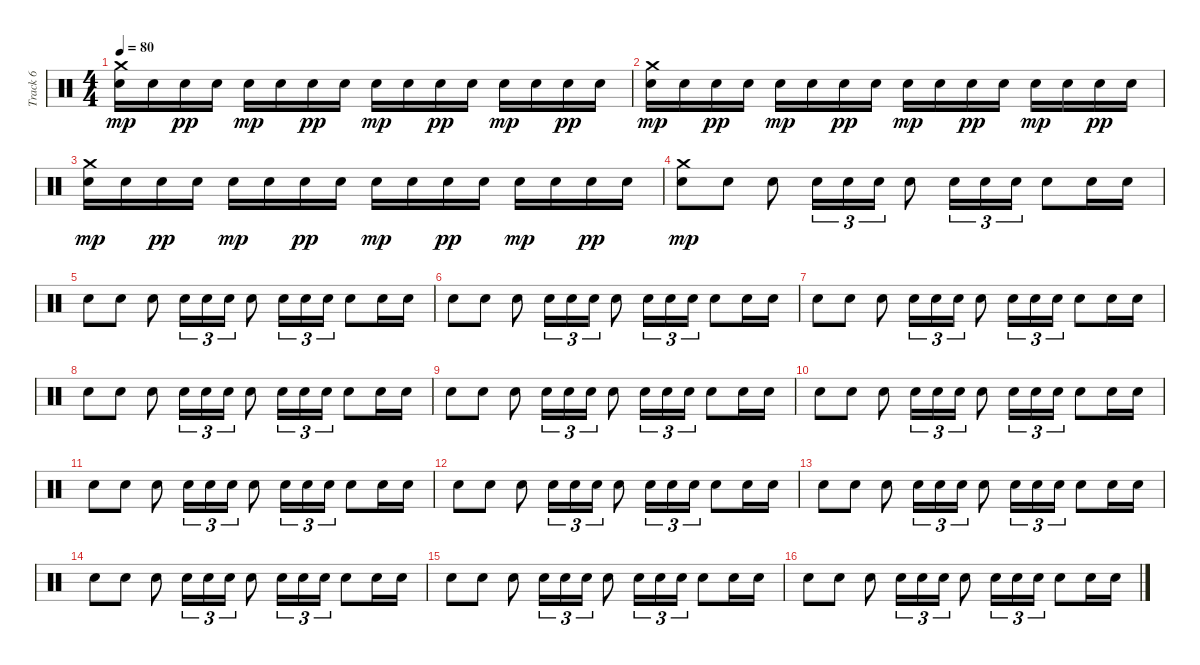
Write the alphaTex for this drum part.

\track ("Track 6" "Track 6") {instrument percussion}
\staff {score}
\articulation defaults
\ts (4 4)
\tempo 80
\clef neutral
\ks c
("Electric Snare (hit)" "Crash medium (hit)").16{dy mp} "Electric Snare (hit)".16 "Electric Snare (hit)".16{dy pp} "Electric Snare (hit)".16 "Electric Snare (hit)".16{dy mp} "Electric Snare (hit)".16 "Electric Snare (hit)".16{dy pp} "Electric Snare (hit)".16 "Electric Snare (hit)".16{dy mp} "Electric Snare (hit)".16 "Electric Snare (hit)".16{dy pp} "Electric Snare (hit)".16 "Electric Snare (hit)".16{dy mp} "Electric Snare (hit)".16 "Electric Snare (hit)".16{dy pp} "Electric Snare (hit)".16 |
("Electric Snare (hit)" "Crash medium (hit)").16{dy mp} "Electric Snare (hit)".16 "Electric Snare (hit)".16{dy pp} "Electric Snare (hit)".16 "Electric Snare (hit)".16{dy mp} "Electric Snare (hit)".16 "Electric Snare (hit)".16{dy pp} "Electric Snare (hit)".16 "Electric Snare (hit)".16{dy mp} "Electric Snare (hit)".16 "Electric Snare (hit)".16{dy pp} "Electric Snare (hit)".16 "Electric Snare (hit)".16{dy mp} "Electric Snare (hit)".16 "Electric Snare (hit)".16{dy pp} "Electric Snare (hit)".16 |
("Electric Snare (hit)" "Crash medium (hit)").16{dy mp} "Electric Snare (hit)".16 "Electric Snare (hit)".16{dy pp} "Electric Snare (hit)".16 "Electric Snare (hit)".16{dy mp} "Electric Snare (hit)".16 "Electric Snare (hit)".16{dy pp} "Electric Snare (hit)".16 "Electric Snare (hit)".16{dy mp} "Electric Snare (hit)".16 "Electric Snare (hit)".16{dy pp} "Electric Snare (hit)".16 "Electric Snare (hit)".16{dy mp} "Electric Snare (hit)".16 "Electric Snare (hit)".16{dy pp} "Electric Snare (hit)".16 |
("Electric Snare (hit)" "Crash medium (hit)").8{dy mp} "Electric Snare (hit)".8 "Electric Snare (hit)".8 "Electric Snare (hit)".16{tu (3 2)} "Electric Snare (hit)".16{tu (3 2)} "Electric Snare (hit)".16{tu (3 2)} "Electric Snare (hit)".8 "Electric Snare (hit)".16{tu (3 2)} "Electric Snare (hit)".16{tu (3 2)} "Electric Snare (hit)".16{tu (3 2)} "Electric Snare (hit)".8 "Electric Snare (hit)".16 "Electric Snare (hit)".16 |
"Electric Snare (hit)".8 "Electric Snare (hit)".8 "Electric Snare (hit)".8 "Electric Snare (hit)".16{tu (3 2)} "Electric Snare (hit)".16{tu (3 2)} "Electric Snare (hit)".16{tu (3 2)} "Electric Snare (hit)".8 "Electric Snare (hit)".16{tu (3 2)} "Electric Snare (hit)".16{tu (3 2)} "Electric Snare (hit)".16{tu (3 2)} "Electric Snare (hit)".8 "Electric Snare (hit)".16 "Electric Snare (hit)".16 |
"Electric Snare (hit)".8 "Electric Snare (hit)".8 "Electric Snare (hit)".8 "Electric Snare (hit)".16{tu (3 2)} "Electric Snare (hit)".16{tu (3 2)} "Electric Snare (hit)".16{tu (3 2)} "Electric Snare (hit)".8 "Electric Snare (hit)".16{tu (3 2)} "Electric Snare (hit)".16{tu (3 2)} "Electric Snare (hit)".16{tu (3 2)} "Electric Snare (hit)".8 "Electric Snare (hit)".16 "Electric Snare (hit)".16 |
"Electric Snare (hit)".8 "Electric Snare (hit)".8 "Electric Snare (hit)".8 "Electric Snare (hit)".16{tu (3 2)} "Electric Snare (hit)".16{tu (3 2)} "Electric Snare (hit)".16{tu (3 2)} "Electric Snare (hit)".8 "Electric Snare (hit)".16{tu (3 2)} "Electric Snare (hit)".16{tu (3 2)} "Electric Snare (hit)".16{tu (3 2)} "Electric Snare (hit)".8 "Electric Snare (hit)".16 "Electric Snare (hit)".16 |
"Electric Snare (hit)".8 "Electric Snare (hit)".8 "Electric Snare (hit)".8 "Electric Snare (hit)".16{tu (3 2)} "Electric Snare (hit)".16{tu (3 2)} "Electric Snare (hit)".16{tu (3 2)} "Electric Snare (hit)".8 "Electric Snare (hit)".16{tu (3 2)} "Electric Snare (hit)".16{tu (3 2)} "Electric Snare (hit)".16{tu (3 2)} "Electric Snare (hit)".8 "Electric Snare (hit)".16 "Electric Snare (hit)".16 |
"Electric Snare (hit)".8 "Electric Snare (hit)".8 "Electric Snare (hit)".8 "Electric Snare (hit)".16{tu (3 2)} "Electric Snare (hit)".16{tu (3 2)} "Electric Snare (hit)".16{tu (3 2)} "Electric Snare (hit)".8 "Electric Snare (hit)".16{tu (3 2)} "Electric Snare (hit)".16{tu (3 2)} "Electric Snare (hit)".16{tu (3 2)} "Electric Snare (hit)".8 "Electric Snare (hit)".16 "Electric Snare (hit)".16 |
"Electric Snare (hit)".8 "Electric Snare (hit)".8 "Electric Snare (hit)".8 "Electric Snare (hit)".16{tu (3 2)} "Electric Snare (hit)".16{tu (3 2)} "Electric Snare (hit)".16{tu (3 2)} "Electric Snare (hit)".8 "Electric Snare (hit)".16{tu (3 2)} "Electric Snare (hit)".16{tu (3 2)} "Electric Snare (hit)".16{tu (3 2)} "Electric Snare (hit)".8 "Electric Snare (hit)".16 "Electric Snare (hit)".16 |
"Electric Snare (hit)".8 "Electric Snare (hit)".8 "Electric Snare (hit)".8 "Electric Snare (hit)".16{tu (3 2)} "Electric Snare (hit)".16{tu (3 2)} "Electric Snare (hit)".16{tu (3 2)} "Electric Snare (hit)".8 "Electric Snare (hit)".16{tu (3 2)} "Electric Snare (hit)".16{tu (3 2)} "Electric Snare (hit)".16{tu (3 2)} "Electric Snare (hit)".8 "Electric Snare (hit)".16 "Electric Snare (hit)".16 |
"Electric Snare (hit)".8 "Electric Snare (hit)".8 "Electric Snare (hit)".8 "Electric Snare (hit)".16{tu (3 2)} "Electric Snare (hit)".16{tu (3 2)} "Electric Snare (hit)".16{tu (3 2)} "Electric Snare (hit)".8 "Electric Snare (hit)".16{tu (3 2)} "Electric Snare (hit)".16{tu (3 2)} "Electric Snare (hit)".16{tu (3 2)} "Electric Snare (hit)".8 "Electric Snare (hit)".16 "Electric Snare (hit)".16 |
"Electric Snare (hit)".8 "Electric Snare (hit)".8 "Electric Snare (hit)".8 "Electric Snare (hit)".16{tu (3 2)} "Electric Snare (hit)".16{tu (3 2)} "Electric Snare (hit)".16{tu (3 2)} "Electric Snare (hit)".8 "Electric Snare (hit)".16{tu (3 2)} "Electric Snare (hit)".16{tu (3 2)} "Electric Snare (hit)".16{tu (3 2)} "Electric Snare (hit)".8 "Electric Snare (hit)".16 "Electric Snare (hit)".16 |
"Electric Snare (hit)".8 "Electric Snare (hit)".8 "Electric Snare (hit)".8 "Electric Snare (hit)".16{tu (3 2)} "Electric Snare (hit)".16{tu (3 2)} "Electric Snare (hit)".16{tu (3 2)} "Electric Snare (hit)".8 "Electric Snare (hit)".16{tu (3 2)} "Electric Snare (hit)".16{tu (3 2)} "Electric Snare (hit)".16{tu (3 2)} "Electric Snare (hit)".8 "Electric Snare (hit)".16 "Electric Snare (hit)".16 |
"Electric Snare (hit)".8 "Electric Snare (hit)".8 "Electric Snare (hit)".8 "Electric Snare (hit)".16{tu (3 2)} "Electric Snare (hit)".16{tu (3 2)} "Electric Snare (hit)".16{tu (3 2)} "Electric Snare (hit)".8 "Electric Snare (hit)".16{tu (3 2)} "Electric Snare (hit)".16{tu (3 2)} "Electric Snare (hit)".16{tu (3 2)} "Electric Snare (hit)".8 "Electric Snare (hit)".16 "Electric Snare (hit)".16 |
"Electric Snare (hit)".8 "Electric Snare (hit)".8 "Electric Snare (hit)".8 "Electric Snare (hit)".16{tu (3 2)} "Electric Snare (hit)".16{tu (3 2)} "Electric Snare (hit)".16{tu (3 2)} "Electric Snare (hit)".8 "Electric Snare (hit)".16{tu (3 2)} "Electric Snare (hit)".16{tu (3 2)} "Electric Snare (hit)".16{tu (3 2)} "Electric Snare (hit)".8 "Electric Snare (hit)".16 "Electric Snare (hit)".16
